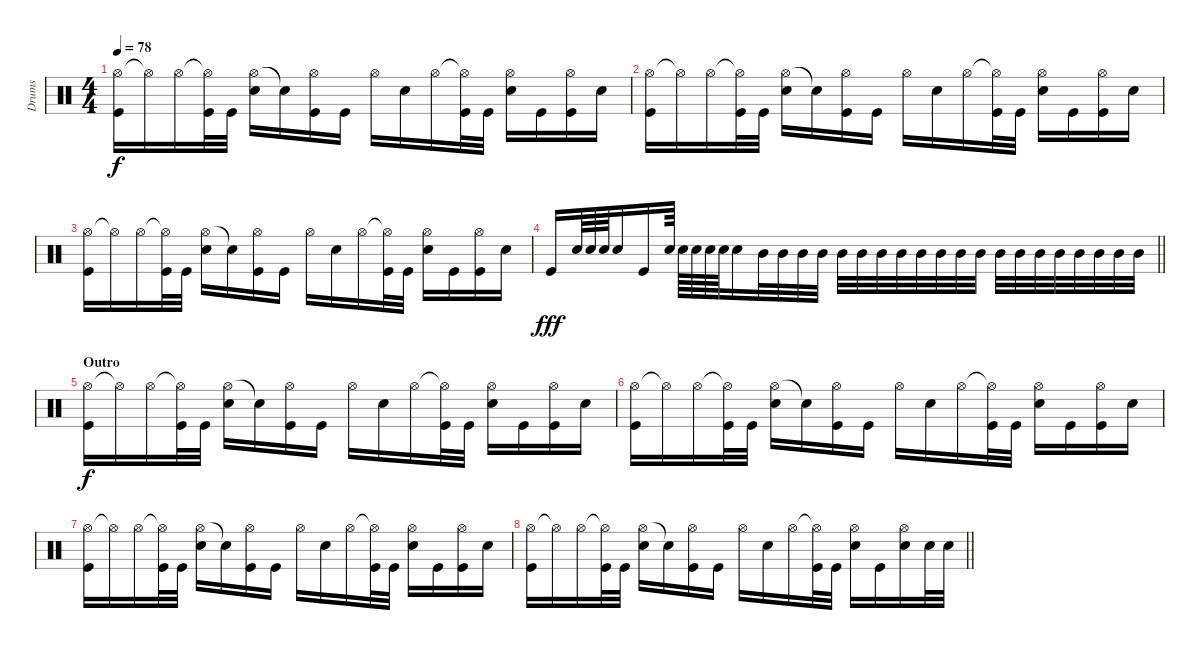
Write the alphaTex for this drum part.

\track ("Drums" "Drums") {instrument percussion}
\staff {score}
\articulation defaults
\ts (4 4)
\tempo 78
\clef neutral
\ks c
("Hi-Hat (open)" "Kick (hit)").16{dy f} "Hi-Hat (open)"{t}.16 "Hi-Hat (open)".16 ("Hi-Hat (open)"{t} "Kick (hit)").32 "Kick (hit)".32 ("Hi-Hat (open)" "Electric Snare (hit)").16 "Snare (hit)"{t}.16 ("Hi-Hat (open)" "Kick (hit)").16 "Kick (hit)".16 "Hi-Hat (open)".16 "Electric Snare (hit)".16 "Hi-Hat (open)".16 ("Hi-Hat (open)"{t} "Kick (hit)").32 "Kick (hit)".32 ("Hi-Hat (open)" "Electric Snare (hit)").16 "Kick (hit)".16 ("Hi-Hat (open)" "Kick (hit)").16 "Electric Snare (hit)".16 |
("Hi-Hat (open)" "Kick (hit)").16 "Hi-Hat (open)"{t}.16 "Hi-Hat (open)".16 ("Hi-Hat (open)"{t} "Kick (hit)").32 "Kick (hit)".32 ("Hi-Hat (open)" "Electric Snare (hit)").16 "Snare (hit)"{t}.16 ("Hi-Hat (open)" "Kick (hit)").16 "Kick (hit)".16 "Hi-Hat (open)".16 "Electric Snare (hit)".16 "Hi-Hat (open)".16 ("Hi-Hat (open)"{t} "Kick (hit)").32 "Kick (hit)".32 ("Hi-Hat (open)" "Electric Snare (hit)").16 "Kick (hit)".16 ("Hi-Hat (open)" "Kick (hit)").16 "Electric Snare (hit)".16 |
("Hi-Hat (open)" "Kick (hit)").16 "Hi-Hat (open)"{t}.16 "Hi-Hat (open)".16 ("Hi-Hat (open)"{t} "Kick (hit)").32 "Kick (hit)".32 ("Hi-Hat (open)" "Electric Snare (hit)").16 "Snare (hit)"{t}.16 ("Hi-Hat (open)" "Kick (hit)").16 "Kick (hit)".16 "Hi-Hat (open)".16 "Electric Snare (hit)".16 "Hi-Hat (open)".16 ("Hi-Hat (open)"{t} "Kick (hit)").32 "Kick (hit)".32 ("Hi-Hat (open)" "Electric Snare (hit)").16 "Kick (hit)".16 ("Hi-Hat (open)" "Kick (hit)").16 "Electric Snare (hit)".16 |
\barLineRight lightlight "Kick (hit)".16{dy fff} "Electric Snare (hit)".64 "Electric Snare (hit)".64 "Electric Snare (hit)".64 "Electric Snare (hit)".16 "Kick (hit)".16 "Electric Snare (hit)".64 "Electric Snare (hit)".64 "Electric Snare (hit)".64 "Electric Snare (hit)".64 "Electric Snare (hit)".64 "Electric Snare (hit)".16 "Mid Tom (hit)".32 "Mid Tom (hit)".32 "Mid Tom (hit)".32 "Mid Tom (hit)".32 "Mid Tom (hit)".32 "Mid Tom (hit)".32 "Mid Tom (hit)".32 "Mid Tom (hit)".32 "Mid Tom (hit)".32 "Mid Tom (hit)".32 "Mid Tom (hit)".32 "Mid Tom (hit)".32 "Mid Tom (hit)".32 "Mid Tom (hit)".32 "Mid Tom (hit)".32 "Mid Tom (hit)".32 "Mid Tom (hit)".32 "Mid Tom (hit)".32 "Mid Tom (hit)".32 "Mid Tom (hit)".32
|
\section ("" "Outro")
("Hi-Hat (open)" "Kick (hit)").16{dy f} "Hi-Hat (open)"{t}.16 "Hi-Hat (open)".16 ("Hi-Hat (open)"{t} "Kick (hit)").32 "Kick (hit)".32 ("Hi-Hat (open)" "Electric Snare (hit)").16 "Snare (hit)"{t}.16 ("Hi-Hat (open)" "Kick (hit)").16 "Kick (hit)".16 "Hi-Hat (open)".16 "Electric Snare (hit)".16 "Hi-Hat (open)".16 ("Hi-Hat (open)"{t} "Kick (hit)").32 "Kick (hit)".32 ("Hi-Hat (open)" "Electric Snare (hit)").16 "Kick (hit)".16 ("Hi-Hat (open)" "Kick (hit)").16 "Electric Snare (hit)".16 |
("Hi-Hat (open)" "Kick (hit)").16 "Hi-Hat (open)"{t}.16 "Hi-Hat (open)".16 ("Hi-Hat (open)"{t} "Kick (hit)").32 "Kick (hit)".32 ("Hi-Hat (open)" "Electric Snare (hit)").16 "Snare (hit)"{t}.16 ("Hi-Hat (open)" "Kick (hit)").16 "Kick (hit)".16 "Hi-Hat (open)".16 "Electric Snare (hit)".16 "Hi-Hat (open)".16 ("Hi-Hat (open)"{t} "Kick (hit)").32 "Kick (hit)".32 ("Hi-Hat (open)" "Electric Snare (hit)").16 "Kick (hit)".16 ("Hi-Hat (open)" "Kick (hit)").16 "Electric Snare (hit)".16 |
("Hi-Hat (open)" "Kick (hit)").16 "Hi-Hat (open)"{t}.16 "Hi-Hat (open)".16 ("Hi-Hat (open)"{t} "Kick (hit)").32 "Kick (hit)".32 ("Hi-Hat (open)" "Electric Snare (hit)").16 "Snare (hit)"{t}.16 ("Hi-Hat (open)" "Kick (hit)").16 "Kick (hit)".16 "Hi-Hat (open)".16 "Electric Snare (hit)".16 "Hi-Hat (open)".16 ("Hi-Hat (open)"{t} "Kick (hit)").32 "Kick (hit)".32 ("Hi-Hat (open)" "Electric Snare (hit)").16 "Kick (hit)".16 ("Hi-Hat (open)" "Kick (hit)").16 "Electric Snare (hit)".16 |
\barLineRight lightlight
("Hi-Hat (open)" "Kick (hit)").16 "Hi-Hat (open)"{t}.16 "Hi-Hat (open)".16 ("Hi-Hat (open)"{t} "Kick (hit)").32 "Kick (hit)".32 ("Hi-Hat (open)" "Electric Snare (hit)").16 "Snare (hit)"{t}.16 ("Hi-Hat (open)" "Kick (hit)").16 "Kick (hit)".16 "Hi-Hat (open)".16 "Electric Snare (hit)".16 "Hi-Hat (open)".16 ("Hi-Hat (open)"{t} "Kick (hit)").32 "Kick (hit)".32 ("Hi-Hat (open)" "Electric Snare (hit)").16 "Kick (hit)".16 ("Hi-Hat (open)" "Electric Snare (hit)").16 "Electric Snare (hit)".32 "Electric Snare (hit)".32
